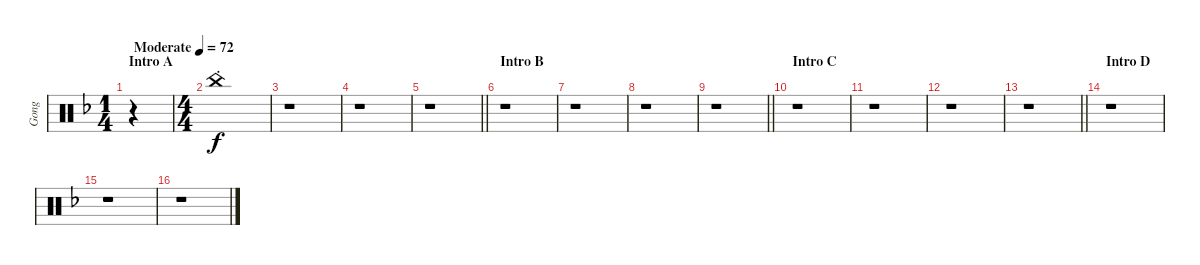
\track ("Gong" "Gong") {instrument percussion}
\staff {score}
\articulation defaults
\ts (1 4)
\section ("" "Intro A")
\tempo (72 "Moderate")
\clef neutral
\ks f
r.4{dy f} |
\ts (4 4)
"China (hit)"{st}.1 |
r.1 |
r.1 |
\barLineRight lightlight
r.1 |
\section ("" "Intro B")
r.1 |
r.1 |
r.1 |
\barLineRight lightlight
r.1 |
\section ("" "Intro C")
r.1 |
r.1 |
r.1 |
\barLineRight lightlight
r.1 |
\section ("" "Intro D")
r.1 |
r.1 |
r.1
